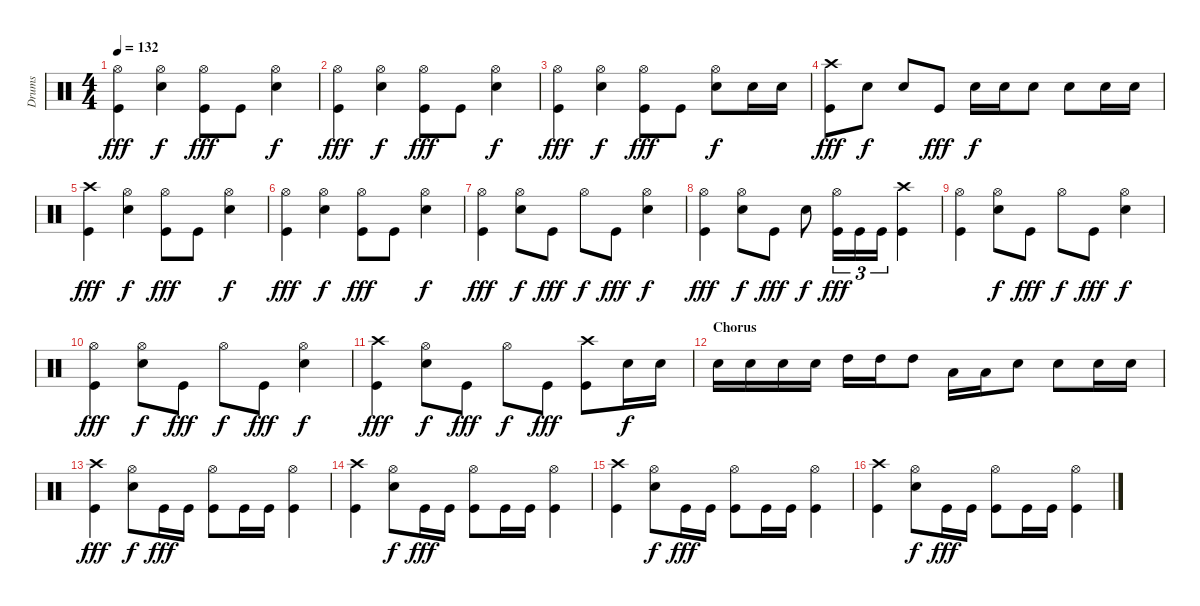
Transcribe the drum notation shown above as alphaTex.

\track ("Drums" "Drums") {instrument percussion}
\staff {score}
\articulation defaults
\ts (4 4)
\tempo 132
\clef neutral
\ks c
("Hi-Hat (open)" "Kick (hit)").4{dy fff} ("Hi-Hat (open)" "Snare (hit) 2").4{dy f} ("Hi-Hat (open)" "Kick (hit)").8{dy fff} "Kick (hit)".8 ("Hi-Hat (open)" "Snare (hit) 2").4{dy f} |
("Hi-Hat (open)" "Kick (hit)").4{dy fff} ("Hi-Hat (open)" "Snare (hit) 2").4{dy f} ("Hi-Hat (open)" "Kick (hit)").8{dy fff} "Kick (hit)".8 ("Hi-Hat (open)" "Snare (hit) 2").4{dy f} |
("Hi-Hat (open)" "Kick (hit)").4{dy fff} ("Hi-Hat (open)" "Snare (hit) 2").4{dy f} ("Hi-Hat (open)" "Kick (hit)").8{dy fff} "Kick (hit)".8 ("Hi-Hat (open)" "Snare (hit) 2").8{dy f} "Snare (hit) 2".16 "Snare (hit) 2".16 |
("Crash high (hit)" "Kick (hit)").8{dy fff} "Snare (hit) 2".8{dy f} "Snare (hit) 2".8 "Kick (hit)".8{dy fff} "Snare (hit) 2".16{dy f} "Snare (hit) 2".16 "Snare (hit) 2".8 "Snare (hit) 2".8 "Snare (hit) 2".16 "Snare (hit) 2".16 |
("Crash high (hit)" "Kick (hit)").4{dy fff} ("Hi-Hat (open)" "Snare (hit) 2").4{dy f} ("Hi-Hat (open)" "Kick (hit)").8{dy fff} "Kick (hit)".8 ("Hi-Hat (open)" "Snare (hit) 2").4{dy f} |
("Hi-Hat (open)" "Kick (hit)").4{dy fff} ("Hi-Hat (open)" "Snare (hit) 2").4{dy f} ("Hi-Hat (open)" "Kick (hit)").8{dy fff} "Kick (hit)".8 ("Hi-Hat (open)" "Snare (hit) 2").4{dy f} |
("Hi-Hat (open)" "Kick (hit)").4{dy fff} ("Hi-Hat (open)" "Snare (hit) 2").8{dy f} "Kick (hit)".8{dy fff} "Hi-Hat (open)".8{dy f} "Kick (hit)".8{dy fff} ("Hi-Hat (open)" "Snare (hit) 2").4{dy f} |
("Hi-Hat (open)" "Kick (hit)").4{dy fff} ("Hi-Hat (open)" "Snare (hit) 2").8{dy f} "Kick (hit)".8{dy fff} "Snare (hit) 2".8{dy f} ("Hi-Hat (open)" "Kick (hit)").16{tu (3 2) dy fff} "Kick (hit)".16{tu (3 2)} "Kick (hit)".16{tu (3 2)} ("Crash high (hit)" "Kick (hit)").4 |
("Hi-Hat (open)" "Kick (hit)").4 ("Hi-Hat (open)" "Snare (hit) 2").8{dy f} "Kick (hit)".8{dy fff} "Hi-Hat (open)".8{dy f} "Kick (hit)".8{dy fff} ("Hi-Hat (open)" "Snare (hit) 2").4{dy f} |
("Hi-Hat (open)" "Kick (hit)").4{dy fff} ("Hi-Hat (open)" "Snare (hit) 2").8{dy f} "Kick (hit)".8{dy fff} "Hi-Hat (open)".8{dy f} "Kick (hit)".8{dy fff} ("Hi-Hat (open)" "Snare (hit) 2").4{dy f} |
("Crash high (hit)" "Kick (hit)").4{dy fff} ("Hi-Hat (open)" "Snare (hit) 2").8{dy f} "Kick (hit)".8{dy fff} "Hi-Hat (open)".8{dy f} "Kick (hit)".8{dy fff} ("Crash high (hit)" "Kick (hit)").8 "Snare (hit) 2".16{dy f} "Snare (hit) 2".16 |
\section ("" "Chorus")
"Snare (hit) 2".16 "Snare (hit) 2".16 "Snare (hit) 2".16 "Snare (hit) 2".16 "High Tom (hit)".16 "High Tom (hit)".16 "High Tom (hit)".8 "Low Tom (hit)".16 "Low Tom (hit)".16 "Snare (hit) 2".8 "Snare (hit) 2".8 "Snare (hit) 2".16 "Snare (hit) 2".16 |
("Crash high (hit)" "Kick (hit)").4{dy fff} ("Hi-Hat (open)" "Snare (hit) 2").8{dy f} "Kick (hit)".16{dy fff} "Kick (hit)".16 ("Hi-Hat (open)" "Kick (hit)").8 "Kick (hit)".16 "Kick (hit)".16 ("Hi-Hat (open)" "Kick (hit)").4 |
("Crash high (hit)" "Kick (hit)").4 ("Hi-Hat (open)" "Snare (hit) 2").8{dy f} "Kick (hit)".16{dy fff} "Kick (hit)".16 ("Hi-Hat (open)" "Kick (hit)").8 "Kick (hit)".16 "Kick (hit)".16 ("Hi-Hat (open)" "Kick (hit)").4 |
("Crash high (hit)" "Kick (hit)").4 ("Hi-Hat (open)" "Snare (hit) 2").8{dy f} "Kick (hit)".16{dy fff} "Kick (hit)".16 ("Hi-Hat (open)" "Kick (hit)").8 "Kick (hit)".16 "Kick (hit)".16 ("Hi-Hat (open)" "Kick (hit)").4 |
("Crash high (hit)" "Kick (hit)").4 ("Hi-Hat (open)" "Snare (hit) 2").8{dy f} "Kick (hit)".16{dy fff} "Kick (hit)".16 ("Hi-Hat (open)" "Kick (hit)").8 "Kick (hit)".16 "Kick (hit)".16 ("Hi-Hat (open)" "Kick (hit)").4
